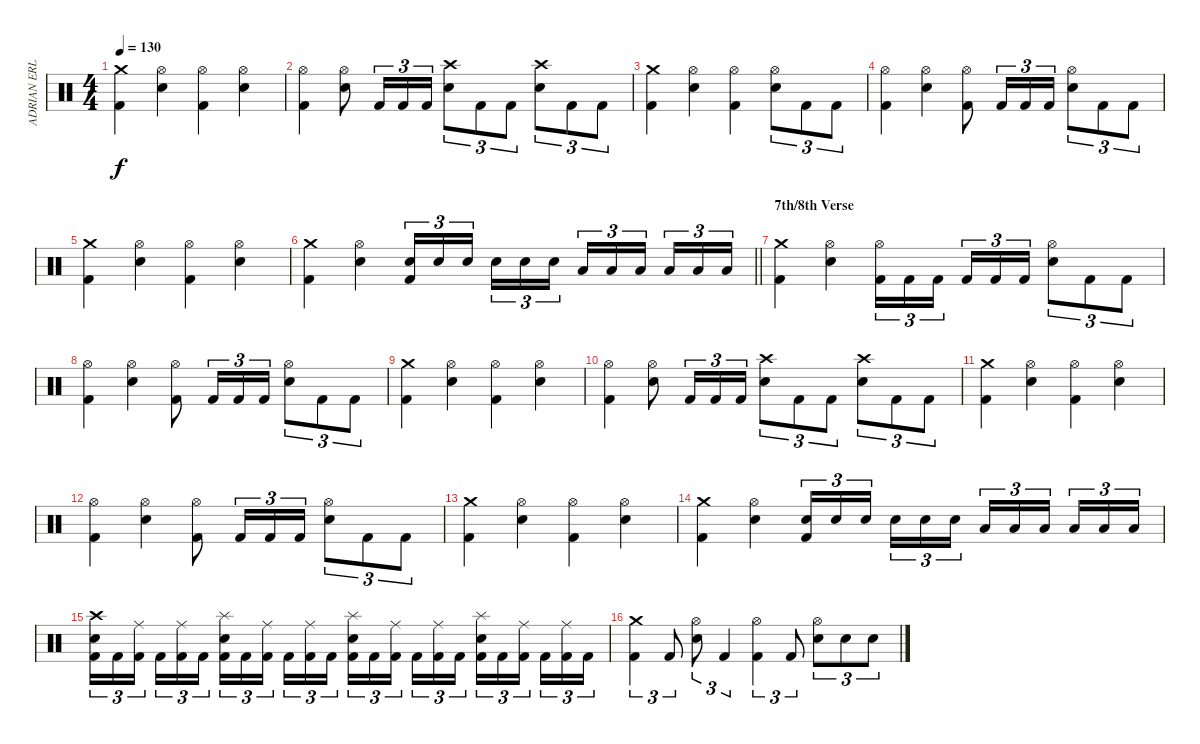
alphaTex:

\track ("ADRIAN ERLANDSSON" "ADRIAN ERL") {instrument percussion}
\staff {score}
\articulation defaults
\ts (4 4)
\tempo 130
\clef neutral
\ks c
("Kick (hit) 2" "Crash medium (hit)").4{dy f} ("Electric Snare (hit)" "Hi-Hat (open)").4 ("Kick (hit) 2" "Hi-Hat (open)").4 ("Electric Snare (hit)" "Hi-Hat (open)").4 |
("Kick (hit) 2" "Hi-Hat (open)").4 ("Electric Snare (hit)" "Hi-Hat (open)").8 "Kick (hit) 2".16{tu (3 2)} "Kick (hit) 2".16{tu (3 2)} "Kick (hit) 2".16{tu (3 2)} ("Electric Snare (hit)" "Crash high (hit)").8{tu (3 2)} "Kick (hit) 2".8{tu (3 2)} "Kick (hit) 2".8{tu (3 2)} ("Electric Snare (hit)" "Crash high (hit)").8{tu (3 2)} "Kick (hit) 2".8{tu (3 2)} "Kick (hit) 2".8{tu (3 2)} |
("Kick (hit) 2" "Crash medium (hit)").4 ("Electric Snare (hit)" "Hi-Hat (open)").4 ("Kick (hit) 2" "Hi-Hat (open)").4 ("Electric Snare (hit)" "Hi-Hat (open)").8{tu (3 2)} "Kick (hit) 2".8{tu (3 2)} "Kick (hit) 2".8{tu (3 2)} |
("Kick (hit) 2" "Hi-Hat (open)").4 ("Electric Snare (hit)" "Hi-Hat (open)").4 ("Kick (hit) 2" "Hi-Hat (open)").8 "Kick (hit) 2".16{tu (3 2)} "Kick (hit) 2".16{tu (3 2)} "Kick (hit) 2".16{tu (3 2)} ("Electric Snare (hit)" "Hi-Hat (open)").8{tu (3 2)} "Kick (hit) 2".8{tu (3 2)} "Kick (hit) 2".8{tu (3 2)} |
("Kick (hit) 2" "Crash medium (hit)").4 ("Electric Snare (hit)" "Hi-Hat (open)").4 ("Kick (hit) 2" "Hi-Hat (open)").4 ("Electric Snare (hit)" "Hi-Hat (open)").4 |
\barLineRight lightlight
("Kick (hit) 2" "Crash medium (hit)").4 ("Electric Snare (hit)" "Hi-Hat (open)").4 ("Kick (hit) 2" "Electric Snare (hit)").16{tu (3 2)} "Electric Snare (hit)".16{tu (3 2)} "Electric Snare (hit)".16{tu (3 2) beam splitsecondary} "Electric Snare (hit)".16{tu (3 2)} "Electric Snare (hit)".16{tu (3 2)} "Electric Snare (hit)".16{tu (3 2)} "Low Tom (hit)".16{tu (3 2)} "Low Tom (hit)".16{tu (3 2)} "Low Tom (hit)".16{tu (3 2) beam splitsecondary} "Low Tom (hit)".16{tu (3 2)} "Low Tom (hit)".16{tu (3 2)} "Low Tom (hit)".16{tu (3 2)} |
\section ("" "7th/8th Verse")
("Kick (hit) 2" "Crash medium (hit)").4 ("Electric Snare (hit)" "Hi-Hat (open)").4 ("Kick (hit) 2" "Hi-Hat (open)").16{tu (3 2)} "Kick (hit) 2".16{tu (3 2)} "Kick (hit) 2".16{tu (3 2) beam splitsecondary} "Kick (hit) 2".16{tu (3 2)} "Kick (hit) 2".16{tu (3 2)} "Kick (hit) 2".16{tu (3 2)} ("Electric Snare (hit)" "Hi-Hat (open)").8{tu (3 2)} "Kick (hit) 2".8{tu (3 2)} "Kick (hit) 2".8{tu (3 2)} |
("Kick (hit) 2" "Hi-Hat (open)").4 ("Electric Snare (hit)" "Hi-Hat (open)").4 ("Kick (hit) 2" "Hi-Hat (open)").8 "Kick (hit) 2".16{tu (3 2)} "Kick (hit) 2".16{tu (3 2)} "Kick (hit) 2".16{tu (3 2)} ("Electric Snare (hit)" "Hi-Hat (open)").8{tu (3 2)} "Kick (hit) 2".8{tu (3 2)} "Kick (hit) 2".8{tu (3 2)} |
("Kick (hit) 2" "Crash medium (hit)").4 ("Electric Snare (hit)" "Hi-Hat (open)").4 ("Kick (hit) 2" "Hi-Hat (open)").4 ("Electric Snare (hit)" "Hi-Hat (open)").4 |
("Kick (hit) 2" "Hi-Hat (open)").4 ("Electric Snare (hit)" "Hi-Hat (open)").8 "Kick (hit) 2".16{tu (3 2)} "Kick (hit) 2".16{tu (3 2)} "Kick (hit) 2".16{tu (3 2)} ("Electric Snare (hit)" "Crash high (hit)").8{tu (3 2)} "Kick (hit) 2".8{tu (3 2)} "Kick (hit) 2".8{tu (3 2)} ("Electric Snare (hit)" "Crash high (hit)").8{tu (3 2)} "Kick (hit) 2".8{tu (3 2)} "Kick (hit) 2".8{tu (3 2)} |
("Kick (hit) 2" "Crash medium (hit)").4 ("Electric Snare (hit)" "Hi-Hat (open)").4 ("Kick (hit) 2" "Hi-Hat (open)").4 ("Electric Snare (hit)" "Hi-Hat (open)").4 |
("Kick (hit) 2" "Hi-Hat (open)").4 ("Electric Snare (hit)" "Hi-Hat (open)").4 ("Kick (hit) 2" "Hi-Hat (open)").8 "Kick (hit) 2".16{tu (3 2)} "Kick (hit) 2".16{tu (3 2)} "Kick (hit) 2".16{tu (3 2)} ("Electric Snare (hit)" "Hi-Hat (open)").8{tu (3 2)} "Kick (hit) 2".8{tu (3 2)} "Kick (hit) 2".8{tu (3 2)} |
("Kick (hit) 2" "Crash medium (hit)").4 ("Electric Snare (hit)" "Hi-Hat (open)").4 ("Kick (hit) 2" "Hi-Hat (open)").4 ("Electric Snare (hit)" "Hi-Hat (open)").4 |
("Kick (hit) 2" "Crash medium (hit)").4 ("Electric Snare (hit)" "Hi-Hat (open)").4 ("Kick (hit) 2" "Electric Snare (hit)").16{tu (3 2)} "Electric Snare (hit)".16{tu (3 2)} "Electric Snare (hit)".16{tu (3 2) beam splitsecondary} "Electric Snare (hit)".16{tu (3 2)} "Electric Snare (hit)".16{tu (3 2)} "Electric Snare (hit)".16{tu (3 2)} "Low Tom (hit)".16{tu (3 2)} "Low Tom (hit)".16{tu (3 2)} "Low Tom (hit)".16{tu (3 2) beam splitsecondary} "Low Tom (hit)".16{tu (3 2)} "Low Tom (hit)".16{tu (3 2)} "Low Tom (hit)".16{tu (3 2)} |
("Kick (hit) 2" "Electric Snare (hit)" "Crash high (hit)").16{tu (3 2)} "Kick (hit) 2".16{tu (3 2)} ("Kick (hit) 2" "Ride (middle)").16{tu (3 2) beam splitsecondary} "Kick (hit) 2".16{tu (3 2)} ("Kick (hit) 2" "Ride (middle)").16{tu (3 2)} "Kick (hit) 2".16{tu (3 2)} ("Kick (hit) 2" "Electric Snare (hit)" "Splash (hit)").16{tu (3 2)} "Kick (hit) 2".16{tu (3 2)} ("Kick (hit) 2" "Ride (middle)").16{tu (3 2) beam splitsecondary} "Kick (hit) 2".16{tu (3 2)} ("Kick (hit) 2" "Ride (middle)").16{tu (3 2)} "Kick (hit) 2".16{tu (3 2)} ("Kick (hit) 2" "Electric Snare (hit)" "Splash (hit)").16{tu (3 2)} "Kick (hit) 2".16{tu (3 2)} ("Kick (hit) 2" "Ride (middle)").16{tu (3 2) beam splitsecondary} "Kick (hit) 2".16{tu (3 2)} ("Kick (hit) 2" "Ride (middle)").16{tu (3 2)} "Kick (hit) 2".16{tu (3 2)} ("Kick (hit) 2" "Electric Snare (hit)" "Splash (hit)").16{tu (3 2)} "Kick (hit) 2".16{tu (3 2)} ("Kick (hit) 2" "Ride (middle)").16{tu (3 2) beam splitsecondary} "Kick (hit) 2".16{tu (3 2)} ("Kick (hit) 2" "Ride (middle)").16{tu (3 2)} "Kick (hit) 2".16{tu (3 2)} |
("Kick (hit) 2" "Crash medium (hit)").4{tu (3 2)} "Kick (hit) 2".8{tu (3 2)} ("Electric Snare (hit)" "Hi-Hat (open)").8{tu (3 2)} "Kick (hit) 2".4{tu (3 2)} ("Kick (hit) 2" "Hi-Hat (open)").4{tu (3 2)} "Kick (hit) 2".8{tu (3 2)} ("Electric Snare (hit)" "Hi-Hat (open)").8{tu (3 2)} "Electric Snare (hit)".8{tu (3 2)} "Electric Snare (hit)".8{tu (3 2)}
